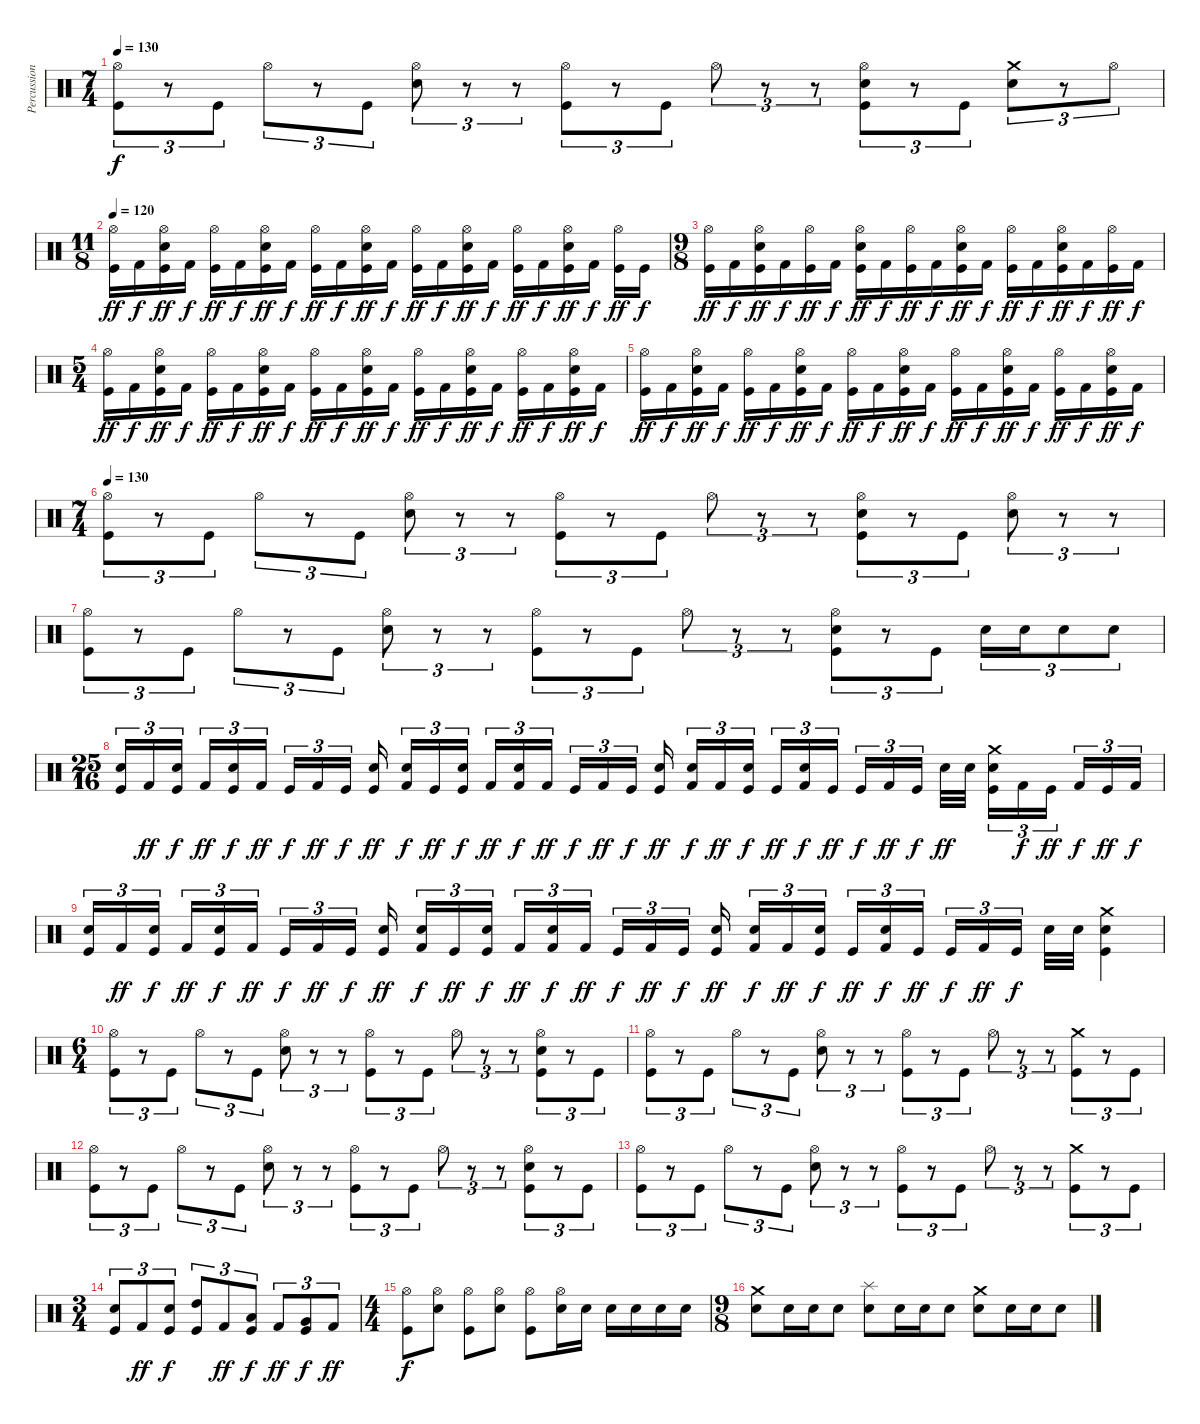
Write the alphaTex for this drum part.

\track ("Percussioni" "Percussion") {instrument percussion}
\staff {score}
\articulation defaults
\ts (7 4)
\tempo 130
\clef neutral
\ks c
("Hi-Hat (open)" "Kick (hit)").8{tu (3 2) dy f} r.8{tu (3 2)} "Kick (hit)".8{tu (3 2)} "Hi-Hat (open)".8{tu (3 2)} r.8{tu (3 2)} "Kick (hit)".8{tu (3 2)} ("Hi-Hat (open)" "Snare (hit) 2").8{tu (3 2)} r.8{tu (3 2)} r.8{tu (3 2)} ("Hi-Hat (open)" "Kick (hit)").8{tu (3 2)} r.8{tu (3 2)} "Kick (hit)".8{tu (3 2)} "Hi-Hat (open)".8{tu (3 2)} r.8{tu (3 2)} r.8{tu (3 2)} ("Hi-Hat (open)" "Snare (hit) 2" "Kick (hit)").8{tu (3 2)} r.8{tu (3 2)} "Kick (hit)".8{tu (3 2)} ("Crash medium (hit)" "Snare (hit) 2").8{tu (3 2)} r.8{tu (3 2)} "Hi-Hat (open)".8{tu (3 2)} |
\ts (11 8)
\tempo 120
("Hi-Hat (open)" "Kick (hit)").16{dy ff} "Kick (hit) 2".16{dy f} ("Hi-Hat (open)" "Snare (hit) 2" "Kick (hit)").16{dy ff} "Kick (hit) 2".16{dy f} ("Hi-Hat (open)" "Kick (hit)").16{dy ff} "Kick (hit) 2".16{dy f} ("Hi-Hat (open)" "Snare (hit) 2" "Kick (hit)").16{dy ff} "Kick (hit) 2".16{dy f} ("Hi-Hat (open)" "Kick (hit)").16{dy ff} "Kick (hit) 2".16{dy f} ("Hi-Hat (open)" "Snare (hit) 2" "Kick (hit)").16{dy ff} "Kick (hit) 2".16{dy f} ("Hi-Hat (open)" "Kick (hit)").16{dy ff} "Kick (hit) 2".16{dy f} ("Hi-Hat (open)" "Snare (hit) 2" "Kick (hit)").16{dy ff} "Kick (hit) 2".16{dy f} ("Hi-Hat (open)" "Kick (hit)").16{dy ff} "Kick (hit) 2".16{dy f} ("Hi-Hat (open)" "Snare (hit) 2" "Kick (hit)").16{dy ff} "Kick (hit) 2".16{dy f} ("Hi-Hat (open)" "Kick (hit)").16{dy ff} "Kick (hit)".16{dy f} |
\ts (9 8)
("Hi-Hat (open)" "Kick (hit)").16{dy ff} "Kick (hit) 2".16{dy f} ("Hi-Hat (open)" "Snare (hit) 2" "Kick (hit)").16{dy ff} "Kick (hit) 2".16{dy f} ("Hi-Hat (open)" "Kick (hit)").16{dy ff} "Kick (hit) 2".16{dy f} ("Hi-Hat (open)" "Snare (hit) 2" "Kick (hit)").16{dy ff} "Kick (hit) 2".16{dy f} ("Hi-Hat (open)" "Kick (hit)").16{dy ff} "Kick (hit) 2".16{dy f} ("Hi-Hat (open)" "Snare (hit) 2" "Kick (hit)").16{dy ff} "Kick (hit) 2".16{dy f} ("Hi-Hat (open)" "Kick (hit)").16{dy ff} "Kick (hit) 2".16{dy f} ("Hi-Hat (open)" "Snare (hit) 2" "Kick (hit)").16{dy ff} "Kick (hit) 2".16{dy f} ("Hi-Hat (open)" "Kick (hit)").16{dy ff} "Kick (hit) 2".16{dy f} |
\ts (5 4)
("Hi-Hat (open)" "Kick (hit)").16{dy ff} "Kick (hit) 2".16{dy f} ("Hi-Hat (open)" "Snare (hit) 2" "Kick (hit)").16{dy ff} "Kick (hit) 2".16{dy f} ("Hi-Hat (open)" "Kick (hit)").16{dy ff} "Kick (hit) 2".16{dy f} ("Hi-Hat (open)" "Snare (hit) 2" "Kick (hit)").16{dy ff} "Kick (hit) 2".16{dy f} ("Hi-Hat (open)" "Kick (hit)").16{dy ff} "Kick (hit) 2".16{dy f} ("Hi-Hat (open)" "Snare (hit) 2" "Kick (hit)").16{dy ff} "Kick (hit) 2".16{dy f} ("Hi-Hat (open)" "Kick (hit)").16{dy ff} "Kick (hit) 2".16{dy f} ("Hi-Hat (open)" "Snare (hit) 2" "Kick (hit)").16{dy ff} "Kick (hit) 2".16{dy f} ("Hi-Hat (open)" "Kick (hit)").16{dy ff} "Kick (hit) 2".16{dy f} ("Hi-Hat (open)" "Snare (hit) 2" "Kick (hit)").16{dy ff} "Kick (hit) 2".16{dy f} |
("Hi-Hat (open)" "Kick (hit)").16{dy ff} "Kick (hit) 2".16{dy f} ("Hi-Hat (open)" "Snare (hit) 2" "Kick (hit)").16{dy ff} "Kick (hit) 2".16{dy f} ("Hi-Hat (open)" "Kick (hit)").16{dy ff} "Kick (hit) 2".16{dy f} ("Hi-Hat (open)" "Snare (hit) 2" "Kick (hit)").16{dy ff} "Kick (hit) 2".16{dy f} ("Hi-Hat (open)" "Kick (hit)").16{dy ff} "Kick (hit) 2".16{dy f} ("Hi-Hat (open)" "Snare (hit) 2" "Kick (hit)").16{dy ff} "Kick (hit) 2".16{dy f} ("Hi-Hat (open)" "Kick (hit)").16{dy ff} "Kick (hit) 2".16{dy f} ("Hi-Hat (open)" "Snare (hit) 2" "Kick (hit)").16{dy ff} "Kick (hit) 2".16{dy f} ("Hi-Hat (open)" "Kick (hit)").16{dy ff} "Kick (hit) 2".16{dy f} ("Hi-Hat (open)" "Snare (hit) 2" "Kick (hit)").16{dy ff} "Kick (hit) 2".16{dy f} |
\ts (7 4)
\tempo 130
("Hi-Hat (open)" "Kick (hit)").8{tu (3 2)} r.8{tu (3 2)} "Kick (hit)".8{tu (3 2)} "Hi-Hat (open)".8{tu (3 2)} r.8{tu (3 2)} "Kick (hit)".8{tu (3 2)} ("Hi-Hat (open)" "Snare (hit) 2").8{tu (3 2)} r.8{tu (3 2)} r.8{tu (3 2)} ("Hi-Hat (open)" "Kick (hit)").8{tu (3 2)} r.8{tu (3 2)} "Kick (hit)".8{tu (3 2)} "Hi-Hat (open)".8{tu (3 2)} r.8{tu (3 2)} r.8{tu (3 2)} ("Hi-Hat (open)" "Snare (hit) 2" "Kick (hit)").8{tu (3 2)} r.8{tu (3 2)} "Kick (hit)".8{tu (3 2)} ("Hi-Hat (open)" "Snare (hit) 2").8{tu (3 2)} r.8{tu (3 2)} r.8{tu (3 2)} |
("Hi-Hat (open)" "Kick (hit)").8{tu (3 2)} r.8{tu (3 2)} "Kick (hit)".8{tu (3 2)} "Hi-Hat (open)".8{tu (3 2)} r.8{tu (3 2)} "Kick (hit)".8{tu (3 2)} ("Hi-Hat (open)" "Snare (hit) 2").8{tu (3 2)} r.8{tu (3 2)} r.8{tu (3 2)} ("Hi-Hat (open)" "Kick (hit)").8{tu (3 2)} r.8{tu (3 2)} "Kick (hit)".8{tu (3 2)} "Hi-Hat (open)".8{tu (3 2)} r.8{tu (3 2)} r.8{tu (3 2)} ("Hi-Hat (open)" "Snare (hit) 2" "Kick (hit)").8{tu (3 2)} r.8{tu (3 2)} "Kick (hit)".8{tu (3 2)} "Snare (hit) 2".16{tu (3 2)} "Snare (hit) 2".16{tu (3 2)} "Snare (hit) 2".8{tu (3 2)} "Snare (hit) 2".8{tu (3 2)} |
\ts (25 16)
("Snare (hit) 2" "Kick (hit)").16{tu (3 2)} "Kick (hit) 2".16{tu (3 2) dy ff} ("Snare (hit) 2" "Kick (hit)").16{tu (3 2) dy f} "Kick (hit) 2".16{tu (3 2) dy ff} ("Snare (hit) 2" "Kick (hit)").16{tu (3 2) dy f} "Kick (hit) 2".16{tu (3 2) dy ff} "Kick (hit)".16{tu (3 2) dy f} "Kick (hit) 2".16{tu (3 2) dy ff} "Kick (hit)".16{tu (3 2) dy f} ("Snare (hit) 2" "Kick (hit)").16{dy ff} ("Snare (hit) 2" "Kick (hit) 2").16{tu (3 2) dy f} "Kick (hit)".16{tu (3 2) dy ff} ("Snare (hit) 2" "Kick (hit)").16{tu (3 2) dy f} "Kick (hit) 2".16{tu (3 2) dy ff} ("Snare (hit) 2" "Kick (hit) 2").16{tu (3 2) dy f} "Kick (hit) 2".16{tu (3 2) dy ff} "Kick (hit)".16{tu (3 2) dy f} "Kick (hit) 2".16{tu (3 2) dy ff} "Kick (hit)".16{tu (3 2) dy f} ("Snare (hit) 2" "Kick (hit)").16{dy ff} ("Snare (hit) 2" "Kick (hit) 2").16{tu (3 2) dy f} "Kick (hit) 2".16{tu (3 2) dy ff} ("Snare (hit) 2" "Kick (hit)").16{tu (3 2) dy f} "Kick (hit)".16{tu (3 2) dy ff} ("Snare (hit) 2" "Kick (hit) 2").16{tu (3 2) dy f} "Kick (hit)".16{tu (3 2) dy ff} "Kick (hit)".16{tu (3 2) dy f} "Kick (hit) 2".16{tu (3 2) dy ff} "Kick (hit)".16{tu (3 2) dy f} "Snare (hit) 2".32{dy ff} "Snare (hit) 2".32 ("Crash medium (hit)" "Snare (hit) 2" "Kick (hit)").16{tu (3 2)} "Kick (hit) 2".16{tu (3 2) dy f} "Kick (hit)".16{tu (3 2) dy ff} "Kick (hit) 2".16{tu (3 2) dy f} "Kick (hit)".16{tu (3 2) dy ff} "Kick (hit) 2".16{tu (3 2) dy f} |
("Snare (hit) 2" "Kick (hit)").16{tu (3 2)} "Kick (hit) 2".16{tu (3 2) dy ff} ("Snare (hit) 2" "Kick (hit)").16{tu (3 2) dy f} "Kick (hit) 2".16{tu (3 2) dy ff} ("Snare (hit) 2" "Kick (hit)").16{tu (3 2) dy f} "Kick (hit) 2".16{tu (3 2) dy ff} "Kick (hit)".16{tu (3 2) dy f} "Kick (hit) 2".16{tu (3 2) dy ff} "Kick (hit)".16{tu (3 2) dy f} ("Snare (hit) 2" "Kick (hit)").16{dy ff} ("Snare (hit) 2" "Kick (hit) 2").16{tu (3 2) dy f} "Kick (hit)".16{tu (3 2) dy ff} ("Snare (hit) 2" "Kick (hit)").16{tu (3 2) dy f} "Kick (hit) 2".16{tu (3 2) dy ff} ("Snare (hit) 2" "Kick (hit) 2").16{tu (3 2) dy f} "Kick (hit) 2".16{tu (3 2) dy ff} "Kick (hit)".16{tu (3 2) dy f} "Kick (hit) 2".16{tu (3 2) dy ff} "Kick (hit)".16{tu (3 2) dy f} ("Snare (hit) 2" "Kick (hit)").16{dy ff} ("Snare (hit) 2" "Kick (hit) 2").16{tu (3 2) dy f} "Kick (hit) 2".16{tu (3 2) dy ff} ("Snare (hit) 2" "Kick (hit)").16{tu (3 2) dy f} "Kick (hit)".16{tu (3 2) dy ff} ("Snare (hit) 2" "Kick (hit) 2").16{tu (3 2) dy f} "Kick (hit)".16{tu (3 2) dy ff} "Kick (hit)".16{tu (3 2) dy f} "Kick (hit) 2".16{tu (3 2) dy ff} "Kick (hit)".16{tu (3 2) dy f} "Snare (hit) 2".32 "Snare (hit) 2".32 ("Crash medium (hit)" "Snare (hit) 2" "Kick (hit)").4 |
\ts (6 4)
("Hi-Hat (open)" "Kick (hit)").8{tu (3 2)} r.8{tu (3 2)} "Kick (hit)".8{tu (3 2)} "Hi-Hat (open)".8{tu (3 2)} r.8{tu (3 2)} "Kick (hit)".8{tu (3 2)} ("Hi-Hat (open)" "Snare (hit) 2").8{tu (3 2)} r.8{tu (3 2)} r.8{tu (3 2)} ("Hi-Hat (open)" "Kick (hit)").8{tu (3 2)} r.8{tu (3 2)} "Kick (hit)".8{tu (3 2)} "Hi-Hat (open)".8{tu (3 2)} r.8{tu (3 2)} r.8{tu (3 2)} ("Hi-Hat (open)" "Snare (hit) 2" "Kick (hit)").8{tu (3 2)} r.8{tu (3 2)} "Kick (hit)".8{tu (3 2)} |
("Hi-Hat (open)" "Kick (hit)").8{tu (3 2)} r.8{tu (3 2)} "Kick (hit)".8{tu (3 2)} "Hi-Hat (open)".8{tu (3 2)} r.8{tu (3 2)} "Kick (hit)".8{tu (3 2)} ("Hi-Hat (open)" "Snare (hit) 2").8{tu (3 2)} r.8{tu (3 2)} r.8{tu (3 2)} ("Hi-Hat (open)" "Kick (hit)").8{tu (3 2)} r.8{tu (3 2)} "Kick (hit)".8{tu (3 2)} "Hi-Hat (open)".8{tu (3 2)} r.8{tu (3 2)} r.8{tu (3 2)} ("Crash medium (hit)" "Kick (hit)").8{tu (3 2)} r.8{tu (3 2)} "Kick (hit)".8{tu (3 2)} |
("Hi-Hat (open)" "Kick (hit)").8{tu (3 2)} r.8{tu (3 2)} "Kick (hit)".8{tu (3 2)} "Hi-Hat (open)".8{tu (3 2)} r.8{tu (3 2)} "Kick (hit)".8{tu (3 2)} ("Hi-Hat (open)" "Snare (hit) 2").8{tu (3 2)} r.8{tu (3 2)} r.8{tu (3 2)} ("Hi-Hat (open)" "Kick (hit)").8{tu (3 2)} r.8{tu (3 2)} "Kick (hit)".8{tu (3 2)} "Hi-Hat (open)".8{tu (3 2)} r.8{tu (3 2)} r.8{tu (3 2)} ("Hi-Hat (open)" "Snare (hit) 2" "Kick (hit)").8{tu (3 2)} r.8{tu (3 2)} "Kick (hit)".8{tu (3 2)} |
("Hi-Hat (open)" "Kick (hit)").8{tu (3 2)} r.8{tu (3 2)} "Kick (hit)".8{tu (3 2)} "Hi-Hat (open)".8{tu (3 2)} r.8{tu (3 2)} "Kick (hit)".8{tu (3 2)} ("Hi-Hat (open)" "Snare (hit) 2").8{tu (3 2)} r.8{tu (3 2)} r.8{tu (3 2)} ("Hi-Hat (open)" "Kick (hit)").8{tu (3 2)} r.8{tu (3 2)} "Kick (hit)".8{tu (3 2)} "Hi-Hat (open)".8{tu (3 2)} r.8{tu (3 2)} r.8{tu (3 2)} ("Crash medium (hit)" "Kick (hit)").8{tu (3 2)} r.8{tu (3 2)} "Kick (hit)".8{tu (3 2)} |
\ts (3 4)
("Snare (hit) 2" "Kick (hit)").8{tu (3 2)} "Kick (hit) 2".8{tu (3 2) dy ff} ("Snare (hit) 2" "Kick (hit)").8{tu (3 2) dy f} ("High Tom (hit)" "Kick (hit)").8{tu (3 2)} "Kick (hit) 2".8{tu (3 2) dy ff} ("Low Tom (hit)" "Kick (hit)").8{tu (3 2) dy f} "Kick (hit) 2".8{tu (3 2) dy ff} ("Very Low Tom (hit)" "Kick (hit)").8{tu (3 2) dy f} "Kick (hit) 2".8{tu (3 2) dy ff} |
\ts (4 4)
("Hi-Hat (open)" "Kick (hit)").8{dy f} ("Hi-Hat (open)" "Snare (hit) 2").8 ("Hi-Hat (open)" "Kick (hit)").8 ("Hi-Hat (open)" "Snare (hit) 2").8 ("Hi-Hat (open)" "Kick (hit)").8 ("Hi-Hat (open)" "Snare (hit) 2").16 "Snare (hit) 2".16 "Snare (hit) 2".16 "Snare (hit) 2".16 "Snare (hit) 2".16 "Snare (hit) 2".16 |
\ts (9 8)
("Crash medium (hit)" "Snare (hit) 2").8 "Snare (hit) 2".16 "Snare (hit) 2".16 "Snare (hit) 2".8 ("Splash (hit)" "Snare (hit) 2").8 "Snare (hit) 2".16 "Snare (hit) 2".16 "Snare (hit) 2".8 ("Crash medium (hit)" "Snare (hit) 2").8 "Snare (hit) 2".16 "Snare (hit) 2".16 "Snare (hit) 2".8
